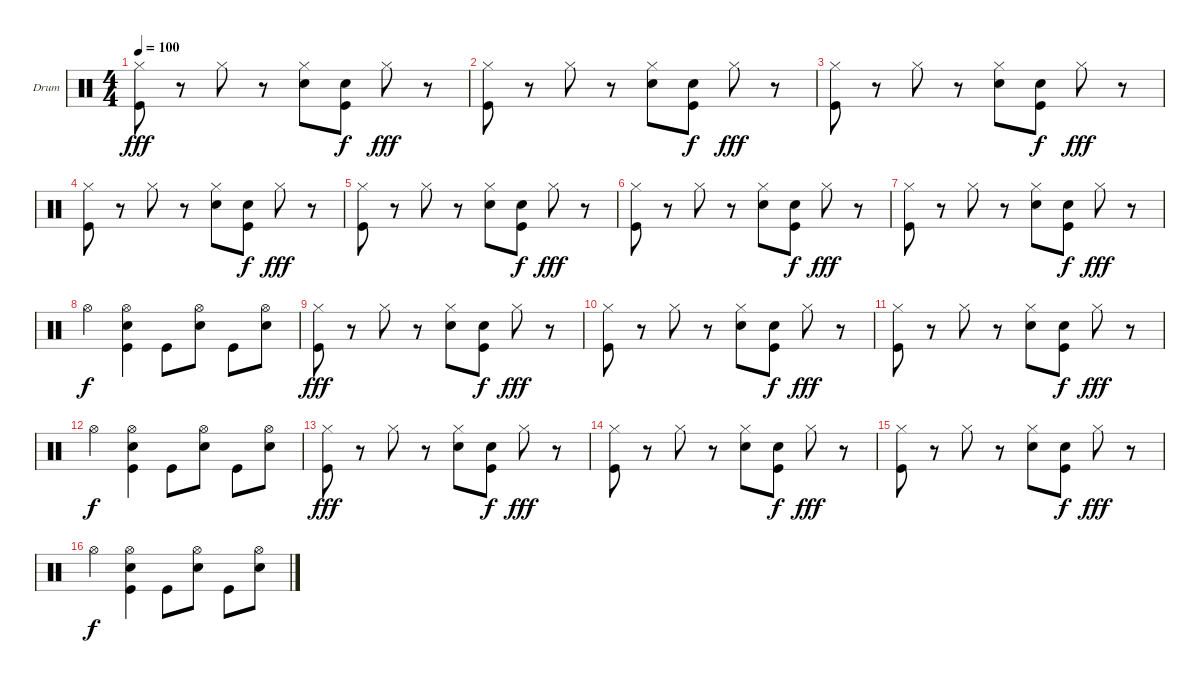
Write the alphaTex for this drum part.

\defaultSystemsLayout 4
\bracketExtendMode groupsimilarinstruments
\firstSystemTrackNameOrientation horizontal
\otherSystemsTrackNameOrientation horizontal
\track ("Drum" "Drum") {instrument percussion}
\staff {score}
\articulation defaults
\ts (4 4)
\tempo 100
\clef neutral
\scale
0.333333
\ks c
("Hi-Hat (closed)" "Kick (hit)").8{dy fff} r.8 "Hi-Hat (closed)".8 r.8 ("Hi-Hat (closed)" "Snare (hit) 2").8 ("Snare (hit) 2" "Kick (hit)").8{dy f} "Hi-Hat (closed)".8{dy fff} r.8 |
\scale
0.333333 ("Hi-Hat (closed)" "Kick (hit)").8 r.8 "Hi-Hat (closed)".8 r.8 ("Hi-Hat (closed)" "Snare (hit) 2").8 ("Snare (hit) 2" "Kick (hit)").8{dy f} "Hi-Hat (closed)".8{dy fff} r.8 |
\scale
0.333333 ("Hi-Hat (closed)" "Kick (hit)").8 r.8 "Hi-Hat (closed)".8 r.8 ("Hi-Hat (closed)" "Snare (hit) 2").8 ("Snare (hit) 2" "Kick (hit)").8{dy f} "Hi-Hat (closed)".8{dy fff} r.8 |
\scale
0.333333 ("Hi-Hat (closed)" "Kick (hit)").8 r.8 "Hi-Hat (closed)".8 r.8 ("Hi-Hat (closed)" "Snare (hit) 2").8 ("Snare (hit) 2" "Kick (hit)").8{dy f} "Hi-Hat (closed)".8{dy fff} r.8 |
\scale
0.333333 ("Hi-Hat (closed)" "Kick (hit)").8 r.8 "Hi-Hat (closed)".8 r.8 ("Hi-Hat (closed)" "Snare (hit) 2").8 ("Snare (hit) 2" "Kick (hit)").8{dy f} "Hi-Hat (closed)".8{dy fff} r.8 |
\scale
0.333333 ("Hi-Hat (closed)" "Kick (hit)").8 r.8 "Hi-Hat (closed)".8 r.8 ("Hi-Hat (closed)" "Snare (hit) 2").8 ("Snare (hit) 2" "Kick (hit)").8{dy f} "Hi-Hat (closed)".8{dy fff} r.8 |
\scale
0.333333 ("Hi-Hat (closed)" "Kick (hit)").8 r.8 "Hi-Hat (closed)".8 r.8 ("Hi-Hat (closed)" "Snare (hit) 2").8 ("Snare (hit) 2" "Kick (hit)").8{dy f} "Hi-Hat (closed)".8{dy fff} r.8 |
\scale
0.333333 "Hi-Hat (open)".4{dy f} ("Kick (hit)" "Snare (hit) 2" "Hi-Hat (open)").4 "Kick (hit)".8 ("Hi-Hat (open)" "Snare (hit) 2").8 "Kick (hit)".8 ("Snare (hit) 2" "Hi-Hat (open)").8 |
\scale
0.333333 ("Hi-Hat (closed)" "Kick (hit)").8{dy fff} r.8 "Hi-Hat (closed)".8 r.8 ("Hi-Hat (closed)" "Snare (hit) 2").8 ("Snare (hit) 2" "Kick (hit)").8{dy f} "Hi-Hat (closed)".8{dy fff} r.8 |
\scale
0.333333 ("Hi-Hat (closed)" "Kick (hit)").8 r.8 "Hi-Hat (closed)".8 r.8 ("Hi-Hat (closed)" "Snare (hit) 2").8 ("Snare (hit) 2" "Kick (hit)").8{dy f} "Hi-Hat (closed)".8{dy fff} r.8 |
\scale
0.333333 ("Hi-Hat (closed)" "Kick (hit)").8 r.8 "Hi-Hat (closed)".8 r.8 ("Hi-Hat (closed)" "Snare (hit) 2").8 ("Snare (hit) 2" "Kick (hit)").8{dy f} "Hi-Hat (closed)".8{dy fff} r.8 |
\scale
0.333333 "Hi-Hat (open)".4{dy f} ("Kick (hit)" "Snare (hit) 2" "Hi-Hat (open)").4 "Kick (hit)".8 ("Hi-Hat (open)" "Snare (hit) 2").8 "Kick (hit)".8 ("Snare (hit) 2" "Hi-Hat (open)").8 |
\scale
0.333333 ("Hi-Hat (closed)" "Kick (hit)").8{dy fff} r.8 "Hi-Hat (closed)".8 r.8 ("Hi-Hat (closed)" "Snare (hit) 2").8 ("Snare (hit) 2" "Kick (hit)").8{dy f} "Hi-Hat (closed)".8{dy fff} r.8 |
\scale
0.333333 ("Hi-Hat (closed)" "Kick (hit)").8 r.8 "Hi-Hat (closed)".8 r.8 ("Hi-Hat (closed)" "Snare (hit) 2").8 ("Snare (hit) 2" "Kick (hit)").8{dy f} "Hi-Hat (closed)".8{dy fff} r.8 |
\scale
0.333333 ("Hi-Hat (closed)" "Kick (hit)").8 r.8 "Hi-Hat (closed)".8 r.8 ("Hi-Hat (closed)" "Snare (hit) 2").8 ("Snare (hit) 2" "Kick (hit)").8{dy f} "Hi-Hat (closed)".8{dy fff} r.8 |
\scale
0.333333 "Hi-Hat (open)".4{dy f} ("Kick (hit)" "Snare (hit) 2" "Hi-Hat (open)").4 "Kick (hit)".8 ("Hi-Hat (open)" "Snare (hit) 2").8 "Kick (hit)".8 ("Snare (hit) 2" "Hi-Hat (open)").8
